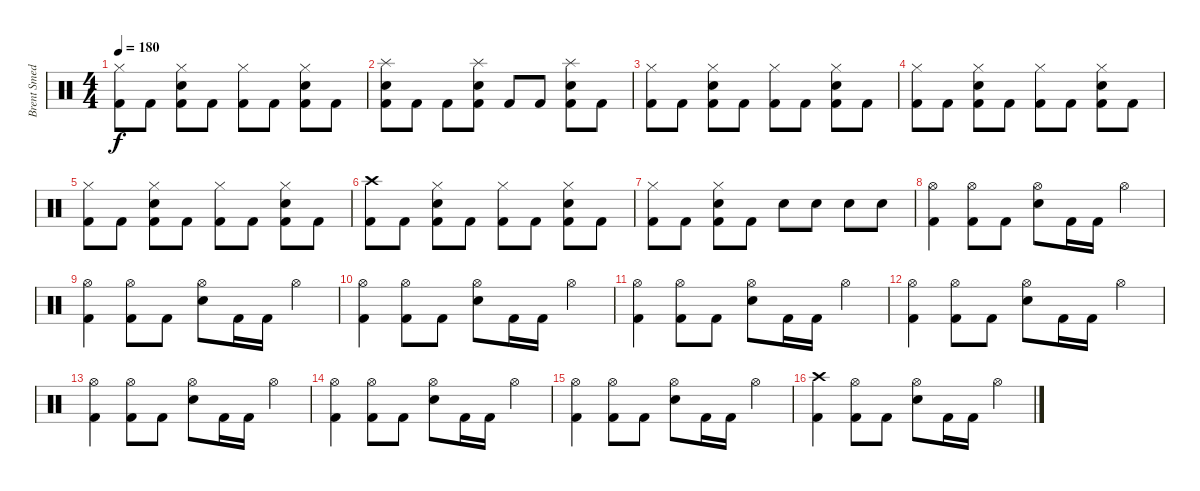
\track ("Brent Smedley" "Brent Smed") {instrument percussion}
\staff {score}
\articulation defaults
\ts (4 4)
\tempo 180
\clef neutral
\ks c
("Hi-Hat (closed)" "Kick (hit) 2").8{dy f} "Kick (hit) 2".8 ("Hi-Hat (closed)" "Snare (hit) 2" "Kick (hit) 2").8 "Kick (hit) 2".8 ("Hi-Hat (closed)" "Kick (hit) 2").8 "Kick (hit) 2".8 ("Hi-Hat (closed)" "Snare (hit) 2" "Kick (hit) 2").8 "Kick (hit) 2".8 |
("Splash (hit)" "Snare (hit) 2" "Kick (hit) 2").8 "Kick (hit) 2".8 "Kick (hit) 2".8 ("Splash (hit)" "Snare (hit) 2" "Kick (hit) 2").8 "Kick (hit) 2".8 "Kick (hit) 2".8 ("Splash (hit)" "Snare (hit) 2" "Kick (hit) 2").8 "Kick (hit) 2".8 |
("Hi-Hat (closed)" "Kick (hit) 2").8 "Kick (hit) 2".8 ("Hi-Hat (closed)" "Snare (hit) 2" "Kick (hit) 2").8 "Kick (hit) 2".8 ("Hi-Hat (closed)" "Kick (hit) 2").8 "Kick (hit) 2".8 ("Hi-Hat (closed)" "Snare (hit) 2" "Kick (hit) 2").8 "Kick (hit) 2".8 |
("Hi-Hat (closed)" "Kick (hit) 2").8 "Kick (hit) 2".8 ("Hi-Hat (closed)" "Snare (hit) 2" "Kick (hit) 2").8 "Kick (hit) 2".8 ("Hi-Hat (closed)" "Kick (hit) 2").8 "Kick (hit) 2".8 ("Hi-Hat (closed)" "Snare (hit) 2" "Kick (hit) 2").8 "Kick (hit) 2".8 |
("Hi-Hat (closed)" "Kick (hit) 2").8 "Kick (hit) 2".8 ("Hi-Hat (closed)" "Snare (hit) 2" "Kick (hit) 2").8 "Kick (hit) 2".8 ("Hi-Hat (closed)" "Kick (hit) 2").8 "Kick (hit) 2".8 ("Hi-Hat (closed)" "Snare (hit) 2" "Kick (hit) 2").8 "Kick (hit) 2".8 |
("Crash high (hit)" "Kick (hit) 2").8 "Kick (hit) 2".8 ("Hi-Hat (closed)" "Snare (hit) 2" "Kick (hit) 2").8 "Kick (hit) 2".8 ("Hi-Hat (closed)" "Kick (hit) 2").8 "Kick (hit) 2".8 ("Hi-Hat (closed)" "Snare (hit) 2" "Kick (hit) 2").8 "Kick (hit) 2".8 |
("Hi-Hat (closed)" "Kick (hit) 2").8 "Kick (hit) 2".8 ("Hi-Hat (closed)" "Snare (hit) 2" "Kick (hit) 2").8 "Kick (hit) 2".8 "Snare (hit) 2".8 "Snare (hit) 2".8 "Snare (hit) 2".8 "Snare (hit) 2".8 |
("Hi-Hat (open)" "Kick (hit) 2").4 ("Hi-Hat (open)" "Kick (hit) 2").8 "Kick (hit) 2".8 ("Hi-Hat (open)" "Snare (hit) 2").8 "Kick (hit) 2".16 "Kick (hit) 2".16 "Hi-Hat (open)".4 |
("Hi-Hat (open)" "Kick (hit) 2").4 ("Hi-Hat (open)" "Kick (hit) 2").8 "Kick (hit) 2".8 ("Hi-Hat (open)" "Snare (hit) 2").8 "Kick (hit) 2".16 "Kick (hit) 2".16 "Hi-Hat (open)".4 |
("Hi-Hat (open)" "Kick (hit) 2").4 ("Hi-Hat (open)" "Kick (hit) 2").8 "Kick (hit) 2".8 ("Hi-Hat (open)" "Snare (hit) 2").8 "Kick (hit) 2".16 "Kick (hit) 2".16 "Hi-Hat (open)".4 |
("Hi-Hat (open)" "Kick (hit) 2").4 ("Hi-Hat (open)" "Kick (hit) 2").8 "Kick (hit) 2".8 ("Hi-Hat (open)" "Snare (hit) 2").8 "Kick (hit) 2".16 "Kick (hit) 2".16 "Hi-Hat (open)".4 |
("Hi-Hat (open)" "Kick (hit) 2").4 ("Hi-Hat (open)" "Kick (hit) 2").8 "Kick (hit) 2".8 ("Hi-Hat (open)" "Snare (hit) 2").8 "Kick (hit) 2".16 "Kick (hit) 2".16 "Hi-Hat (open)".4 |
("Hi-Hat (open)" "Kick (hit) 2").4 ("Hi-Hat (open)" "Kick (hit) 2").8 "Kick (hit) 2".8 ("Hi-Hat (open)" "Snare (hit) 2").8 "Kick (hit) 2".16 "Kick (hit) 2".16 "Hi-Hat (open)".4 |
("Hi-Hat (open)" "Kick (hit) 2").4 ("Hi-Hat (open)" "Kick (hit) 2").8 "Kick (hit) 2".8 ("Hi-Hat (open)" "Snare (hit) 2").8 "Kick (hit) 2".16 "Kick (hit) 2".16 "Hi-Hat (open)".4 |
("Hi-Hat (open)" "Kick (hit) 2").4 ("Hi-Hat (open)" "Kick (hit) 2").8 "Kick (hit) 2".8 ("Hi-Hat (open)" "Snare (hit) 2").8 "Kick (hit) 2".16 "Kick (hit) 2".16 "Hi-Hat (open)".4 |
("Crash high (hit)" "Kick (hit) 2").4 ("Hi-Hat (open)" "Kick (hit) 2").8 "Kick (hit) 2".8 ("Hi-Hat (open)" "Snare (hit) 2").8 "Kick (hit) 2".16 "Kick (hit) 2".16 "Hi-Hat (open)".4
